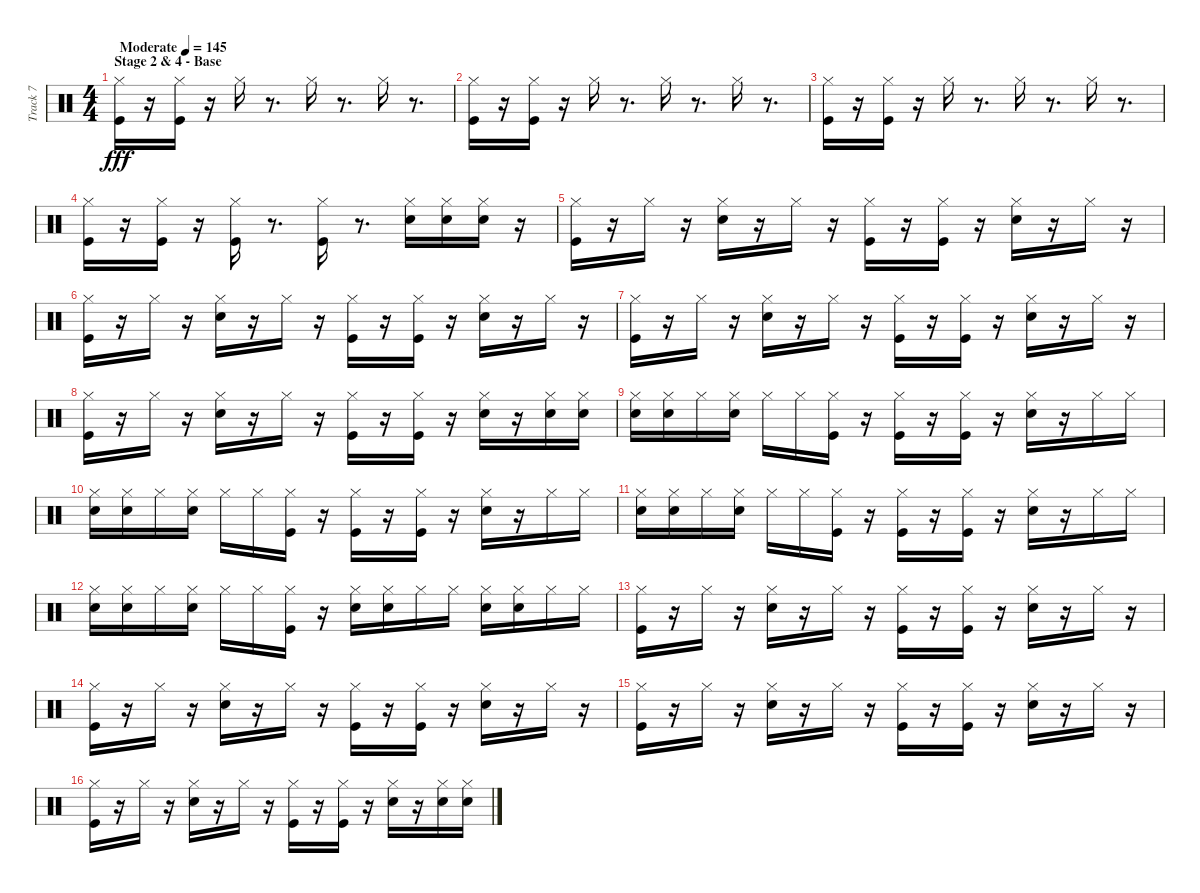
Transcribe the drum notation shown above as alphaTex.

\track ("Track 7" "Track 7") {instrument percussion}
\staff {score}
\articulation defaults
\ts (4 4)
\section ("" "Stage 2 & 4 - Base")
\tempo (145 "Moderate")
\clef neutral
\ks c
("Kick (hit)" "Hi-Hat (closed)").16{dy fff} r.16 ("Kick (hit)" "Hi-Hat (closed)").16 r.16 "Hi-Hat (closed)".16 r.8{d} "Hi-Hat (closed)".16 r.8{d} "Hi-Hat (closed)".16 r.8{d} |
("Kick (hit)" "Hi-Hat (closed)").16 r.16 ("Kick (hit)" "Hi-Hat (closed)").16 r.16 "Hi-Hat (closed)".16 r.8{d} "Hi-Hat (closed)".16 r.8{d} "Hi-Hat (closed)".16 r.8{d} |
("Kick (hit)" "Hi-Hat (closed)").16 r.16 ("Kick (hit)" "Hi-Hat (closed)").16 r.16 "Hi-Hat (closed)".16 r.8{d} "Hi-Hat (closed)".16 r.8{d} "Hi-Hat (closed)".16 r.8{d} |
("Kick (hit)" "Hi-Hat (closed)").16 r.16 ("Kick (hit)" "Hi-Hat (closed)").16 r.16 ("Kick (hit)" "Hi-Hat (closed)").16 r.8{d} ("Kick (hit)" "Hi-Hat (closed)").16 r.8{d} ("Snare (hit) 2" "Hi-Hat (closed)").16 ("Snare (hit) 2" "Hi-Hat (closed)").16 ("Snare (hit) 2" "Hi-Hat (closed)").16 r.16 |
("Kick (hit)" "Hi-Hat (closed)").16 r.16 "Hi-Hat (closed)".16 r.16 ("Snare (hit) 2" "Hi-Hat (closed)").16 r.16 "Hi-Hat (closed)".16 r.16 ("Kick (hit)" "Hi-Hat (closed)").16 r.16 ("Kick (hit)" "Hi-Hat (closed)").16 r.16 ("Snare (hit) 2" "Hi-Hat (closed)").16 r.16 "Hi-Hat (closed)".16 r.16 |
("Kick (hit)" "Hi-Hat (closed)").16 r.16 "Hi-Hat (closed)".16 r.16 ("Snare (hit) 2" "Hi-Hat (closed)").16 r.16 "Hi-Hat (closed)".16 r.16 ("Kick (hit)" "Hi-Hat (closed)").16 r.16 ("Kick (hit)" "Hi-Hat (closed)").16 r.16 ("Snare (hit) 2" "Hi-Hat (closed)").16 r.16 "Hi-Hat (closed)".16 r.16 |
("Kick (hit)" "Hi-Hat (closed)").16 r.16 "Hi-Hat (closed)".16 r.16 ("Snare (hit) 2" "Hi-Hat (closed)").16 r.16 "Hi-Hat (closed)".16 r.16 ("Kick (hit)" "Hi-Hat (closed)").16 r.16 ("Kick (hit)" "Hi-Hat (closed)").16 r.16 ("Snare (hit) 2" "Hi-Hat (closed)").16 r.16 "Hi-Hat (closed)".16 r.16 |
("Kick (hit)" "Hi-Hat (closed)").16 r.16 "Hi-Hat (closed)".16 r.16 ("Snare (hit) 2" "Hi-Hat (closed)").16 r.16 "Hi-Hat (closed)".16 r.16 ("Kick (hit)" "Hi-Hat (closed)").16 r.16 ("Kick (hit)" "Hi-Hat (closed)").16 r.16 ("Snare (hit) 2" "Hi-Hat (closed)").16 r.16 ("Snare (hit) 2" "Hi-Hat (closed)").16 ("Snare (hit) 2" "Hi-Hat (closed)").16 |
("Snare (hit) 2" "Hi-Hat (closed)").16 ("Snare (hit) 2" "Hi-Hat (closed)").16 "Hi-Hat (closed)".16 ("Snare (hit) 2" "Hi-Hat (closed)").16 "Hi-Hat (closed)".16 "Hi-Hat (closed)".16 ("Kick (hit)" "Hi-Hat (closed)").16 r.16 ("Kick (hit)" "Hi-Hat (closed)").16 r.16 ("Kick (hit)" "Hi-Hat (closed)").16 r.16 ("Snare (hit) 2" "Hi-Hat (closed)").16 r.16 "Hi-Hat (closed)".16 "Hi-Hat (closed)".16 |
("Snare (hit) 2" "Hi-Hat (closed)").16 ("Snare (hit) 2" "Hi-Hat (closed)").16 "Hi-Hat (closed)".16 ("Snare (hit) 2" "Hi-Hat (closed)").16 "Hi-Hat (closed)".16 "Hi-Hat (closed)".16 ("Kick (hit)" "Hi-Hat (closed)").16 r.16 ("Kick (hit)" "Hi-Hat (closed)").16 r.16 ("Kick (hit)" "Hi-Hat (closed)").16 r.16 ("Snare (hit) 2" "Hi-Hat (closed)").16 r.16 "Hi-Hat (closed)".16 "Hi-Hat (closed)".16 |
("Snare (hit) 2" "Hi-Hat (closed)").16 ("Snare (hit) 2" "Hi-Hat (closed)").16 "Hi-Hat (closed)".16 ("Snare (hit) 2" "Hi-Hat (closed)").16 "Hi-Hat (closed)".16 "Hi-Hat (closed)".16 ("Kick (hit)" "Hi-Hat (closed)").16 r.16 ("Kick (hit)" "Hi-Hat (closed)").16 r.16 ("Kick (hit)" "Hi-Hat (closed)").16 r.16 ("Snare (hit) 2" "Hi-Hat (closed)").16 r.16 "Hi-Hat (closed)".16 "Hi-Hat (closed)".16 |
("Snare (hit) 2" "Hi-Hat (closed)").16 ("Snare (hit) 2" "Hi-Hat (closed)").16 "Hi-Hat (closed)".16 ("Snare (hit) 2" "Hi-Hat (closed)").16 "Hi-Hat (closed)".16 "Hi-Hat (closed)".16 ("Kick (hit)" "Hi-Hat (closed)").16 r.16 ("Snare (hit) 2" "Hi-Hat (closed)").16 ("Snare (hit) 2" "Hi-Hat (closed)").16 "Hi-Hat (closed)".16 "Hi-Hat (closed)".16 ("Snare (hit) 2" "Hi-Hat (closed)").16 ("Snare (hit) 2" "Hi-Hat (closed)").16 "Hi-Hat (closed)".16 "Hi-Hat (closed)".16 |
("Kick (hit)" "Hi-Hat (closed)").16 r.16 "Hi-Hat (closed)".16 r.16 ("Snare (hit) 2" "Hi-Hat (closed)").16 r.16 "Hi-Hat (closed)".16 r.16 ("Kick (hit)" "Hi-Hat (closed)").16 r.16 ("Kick (hit)" "Hi-Hat (closed)").16 r.16 ("Snare (hit) 2" "Hi-Hat (closed)").16 r.16 "Hi-Hat (closed)".16 r.16 |
("Kick (hit)" "Hi-Hat (closed)").16 r.16 "Hi-Hat (closed)".16 r.16 ("Snare (hit) 2" "Hi-Hat (closed)").16 r.16 "Hi-Hat (closed)".16 r.16 ("Kick (hit)" "Hi-Hat (closed)").16 r.16 ("Kick (hit)" "Hi-Hat (closed)").16 r.16 ("Snare (hit) 2" "Hi-Hat (closed)").16 r.16 "Hi-Hat (closed)".16 r.16 |
("Kick (hit)" "Hi-Hat (closed)").16 r.16 "Hi-Hat (closed)".16 r.16 ("Snare (hit) 2" "Hi-Hat (closed)").16 r.16 "Hi-Hat (closed)".16 r.16 ("Kick (hit)" "Hi-Hat (closed)").16 r.16 ("Kick (hit)" "Hi-Hat (closed)").16 r.16 ("Snare (hit) 2" "Hi-Hat (closed)").16 r.16 "Hi-Hat (closed)".16 r.16 |
("Kick (hit)" "Hi-Hat (closed)").16 r.16 "Hi-Hat (closed)".16 r.16 ("Snare (hit) 2" "Hi-Hat (closed)").16 r.16 "Hi-Hat (closed)".16 r.16 ("Kick (hit)" "Hi-Hat (closed)").16 r.16 ("Kick (hit)" "Hi-Hat (closed)").16 r.16 ("Snare (hit) 2" "Hi-Hat (closed)").16 r.16 ("Snare (hit) 2" "Hi-Hat (closed)").16 ("Snare (hit) 2" "Hi-Hat (closed)").16
